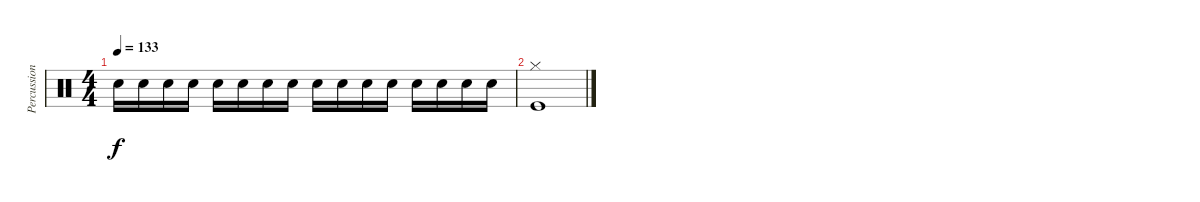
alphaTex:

\track ("Percussion" "Percussion") {instrument percussion}
\staff {score}
\articulation defaults
\ts (4 4)
\tempo 133
\clef neutral
\ks c "Electric Snare (hit)".16{dy f} "Electric Snare (hit)".16 "Electric Snare (hit)".16 "Electric Snare (hit)".16 "Electric Snare (hit)".16 "Electric Snare (hit)".16 "Electric Snare (hit)".16 "Electric Snare (hit)".16 "Electric Snare (hit)".16 "Electric Snare (hit)".16 "Electric Snare (hit)".16 "Electric Snare (hit)".16 "Electric Snare (hit)".16 "Electric Snare (hit)".16 "Electric Snare (hit)".16 "Electric Snare (hit)".16
|
("Hi-Hat (closed)" "Kick (hit)").1
